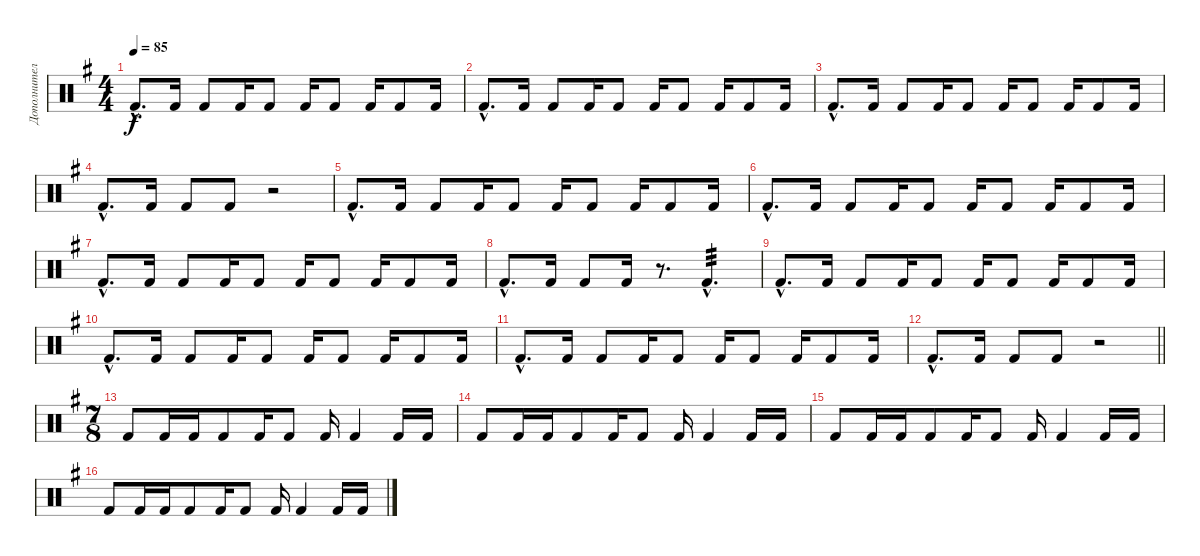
\track ("Дополнительно" "Дополнител") {instrument percussion}
\staff {score}
\articulation defaults
\ts (4 4)
\tempo 85
\clef neutral
\ks eminor "Kick (hit) 2"{hac}.8{d dy f} "Kick (hit) 2".16 "Kick (hit) 2".8 "Kick (hit) 2".16 "Kick (hit) 2".8 "Kick (hit) 2".16 "Kick (hit) 2".8 "Kick (hit) 2".16 "Kick (hit) 2".8 "Kick (hit) 2".16
|
"Kick (hit) 2"{hac}.8{d} "Kick (hit) 2".16 "Kick (hit) 2".8 "Kick (hit) 2".16 "Kick (hit) 2".8 "Kick (hit) 2".16 "Kick (hit) 2".8 "Kick (hit) 2".16 "Kick (hit) 2".8 "Kick (hit) 2".16 |
"Kick (hit) 2"{hac}.8{d} "Kick (hit) 2".16 "Kick (hit) 2".8 "Kick (hit) 2".16 "Kick (hit) 2".8 "Kick (hit) 2".16 "Kick (hit) 2".8 "Kick (hit) 2".16 "Kick (hit) 2".8 "Kick (hit) 2".16 |
"Kick (hit) 2"{hac}.8{d} "Kick (hit) 2".16 "Kick (hit) 2".8 "Kick (hit) 2".8 r.2 |
"Kick (hit) 2"{hac}.8{d} "Kick (hit) 2".16 "Kick (hit) 2".8 "Kick (hit) 2".16 "Kick (hit) 2".8 "Kick (hit) 2".16 "Kick (hit) 2".8 "Kick (hit) 2".16 "Kick (hit) 2".8 "Kick (hit) 2".16 |
"Kick (hit) 2"{hac}.8{d} "Kick (hit) 2".16 "Kick (hit) 2".8 "Kick (hit) 2".16 "Kick (hit) 2".8 "Kick (hit) 2".16 "Kick (hit) 2".8 "Kick (hit) 2".16 "Kick (hit) 2".8 "Kick (hit) 2".16 |
"Kick (hit) 2"{hac}.8{d} "Kick (hit) 2".16 "Kick (hit) 2".8 "Kick (hit) 2".16 "Kick (hit) 2".8 "Kick (hit) 2".16 "Kick (hit) 2".8 "Kick (hit) 2".16 "Kick (hit) 2".8 "Kick (hit) 2".16 |
"Kick (hit) 2"{hac}.8{d} "Kick (hit) 2".16 "Kick (hit) 2".8 "Kick (hit) 2".16 r.8{d} "Kick (hit) 2"{hac}.4{d tp 3} |
"Kick (hit) 2"{hac}.8{d} "Kick (hit) 2".16 "Kick (hit) 2".8 "Kick (hit) 2".16 "Kick (hit) 2".8 "Kick (hit) 2".16 "Kick (hit) 2".8 "Kick (hit) 2".16 "Kick (hit) 2".8 "Kick (hit) 2".16 |
"Kick (hit) 2"{hac}.8{d} "Kick (hit) 2".16 "Kick (hit) 2".8 "Kick (hit) 2".16 "Kick (hit) 2".8 "Kick (hit) 2".16 "Kick (hit) 2".8 "Kick (hit) 2".16 "Kick (hit) 2".8 "Kick (hit) 2".16 |
"Kick (hit) 2"{hac}.8{d} "Kick (hit) 2".16 "Kick (hit) 2".8 "Kick (hit) 2".16 "Kick (hit) 2".8 "Kick (hit) 2".16 "Kick (hit) 2".8 "Kick (hit) 2".16 "Kick (hit) 2".8 "Kick (hit) 2".16 |
\barLineRight lightlight "Kick (hit) 2"{hac}.8{d} "Kick (hit) 2".16 "Kick (hit) 2".8 "Kick (hit) 2".8
r.2 |
\ts (7 8)
\section ("" "")
"Kick (hit) 2".8 "Kick (hit) 2".16 "Kick (hit) 2".16 "Kick (hit) 2".8 "Kick (hit) 2".16 "Kick (hit) 2".8 "Kick (hit) 2".16 "Kick (hit) 2".4 "Kick (hit) 2".16 "Kick (hit) 2".16 |
"Kick (hit) 2".8 "Kick (hit) 2".16 "Kick (hit) 2".16 "Kick (hit) 2".8 "Kick (hit) 2".16 "Kick (hit) 2".8 "Kick (hit) 2".16 "Kick (hit) 2".4 "Kick (hit) 2".16 "Kick (hit) 2".16 |
"Kick (hit) 2".8 "Kick (hit) 2".16 "Kick (hit) 2".16 "Kick (hit) 2".8 "Kick (hit) 2".16 "Kick (hit) 2".8 "Kick (hit) 2".16 "Kick (hit) 2".4 "Kick (hit) 2".16 "Kick (hit) 2".16 |
"Kick (hit) 2".8 "Kick (hit) 2".16 "Kick (hit) 2".16 "Kick (hit) 2".8 "Kick (hit) 2".16 "Kick (hit) 2".8 "Kick (hit) 2".16 "Kick (hit) 2".4 "Kick (hit) 2".16 "Kick (hit) 2".16
